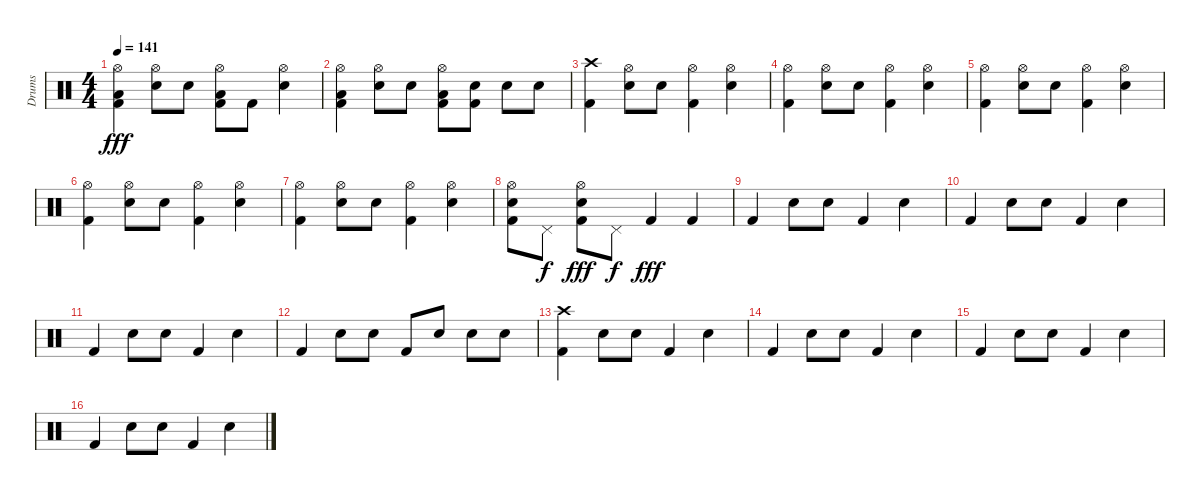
\track ("Drums" "Drums") {instrument percussion}
\staff {score}
\articulation defaults
\ts (4 4)
\tempo 141
\clef neutral
\ks c
("Hi-Hat (open)" "Low Floor Tom (hit)" "Kick (hit) 2").4{dy fff} ("Hi-Hat (open)" "Electric Snare (hit)").8 "Electric Snare (hit)".8 ("Hi-Hat (open)" "Low Floor Tom (hit)" "Kick (hit) 2").8 "Kick (hit) 2".8 ("Hi-Hat (open)" "Electric Snare (hit)").4 |
("Hi-Hat (open)" "Low Floor Tom (hit)" "Kick (hit) 2").4 ("Hi-Hat (open)" "Electric Snare (hit)").8 "Electric Snare (hit)".8 ("Hi-Hat (open)" "Low Floor Tom (hit)" "Kick (hit) 2").8 ("Electric Snare (hit)" "Kick (hit) 2").8 "Electric Snare (hit)".8 "Electric Snare (hit)".8 |
("Crash high (hit)" "Kick (hit) 2").4 ("Hi-Hat (open)" "Electric Snare (hit)").8 "Electric Snare (hit)".8 ("Hi-Hat (open)" "Kick (hit) 2").4 ("Hi-Hat (open)" "Electric Snare (hit)").4 |
("Hi-Hat (open)" "Kick (hit) 2").4 ("Hi-Hat (open)" "Electric Snare (hit)").8 "Electric Snare (hit)".8 ("Hi-Hat (open)" "Kick (hit) 2").4 ("Hi-Hat (open)" "Electric Snare (hit)").4 |
("Hi-Hat (open)" "Kick (hit) 2").4 ("Hi-Hat (open)" "Electric Snare (hit)").8 "Electric Snare (hit)".8 ("Hi-Hat (open)" "Kick (hit) 2").4 ("Hi-Hat (open)" "Electric Snare (hit)").4 |
("Hi-Hat (open)" "Kick (hit) 2").4 ("Hi-Hat (open)" "Electric Snare (hit)").8 "Electric Snare (hit)".8 ("Hi-Hat (open)" "Kick (hit) 2").4 ("Hi-Hat (open)" "Electric Snare (hit)").4 |
("Hi-Hat (open)" "Kick (hit) 2").4 ("Hi-Hat (open)" "Electric Snare (hit)").8 "Electric Snare (hit)".8 ("Hi-Hat (open)" "Kick (hit) 2").4 ("Hi-Hat (open)" "Electric Snare (hit)").4 |
("Hi-Hat (open)" "Electric Snare (hit)" "Kick (hit) 2").8 "Pedal Hi-Hat (hit)".8{dy f} ("Hi-Hat (open)" "Electric Snare (hit)" "Kick (hit) 2").8{dy fff} "Pedal Hi-Hat (hit)".8{dy f} "Kick (hit) 2".4{dy fff} "Kick (hit) 2".4 |
"Kick (hit) 2".4 "Electric Snare (hit)".8 "Electric Snare (hit)".8 "Kick (hit) 2".4 "Electric Snare (hit)".4 |
"Kick (hit) 2".4 "Electric Snare (hit)".8 "Electric Snare (hit)".8 "Kick (hit) 2".4 "Electric Snare (hit)".4 |
"Kick (hit) 2".4 "Electric Snare (hit)".8 "Electric Snare (hit)".8 "Kick (hit) 2".4 "Electric Snare (hit)".4 |
"Kick (hit) 2".4 "Electric Snare (hit)".8 "Electric Snare (hit)".8 "Kick (hit) 2".8 "Electric Snare (hit)".8 "Electric Snare (hit)".8 "Electric Snare (hit)".8 |
("Crash high (hit)" "Kick (hit) 2").4 "Electric Snare (hit)".8 "Electric Snare (hit)".8 "Kick (hit) 2".4 "Electric Snare (hit)".4 |
"Kick (hit) 2".4 "Electric Snare (hit)".8 "Electric Snare (hit)".8 "Kick (hit) 2".4 "Electric Snare (hit)".4 |
"Kick (hit) 2".4 "Electric Snare (hit)".8 "Electric Snare (hit)".8 "Kick (hit) 2".4 "Electric Snare (hit)".4 |
"Kick (hit) 2".4 "Electric Snare (hit)".8 "Electric Snare (hit)".8 "Kick (hit) 2".4 "Electric Snare (hit)".4
